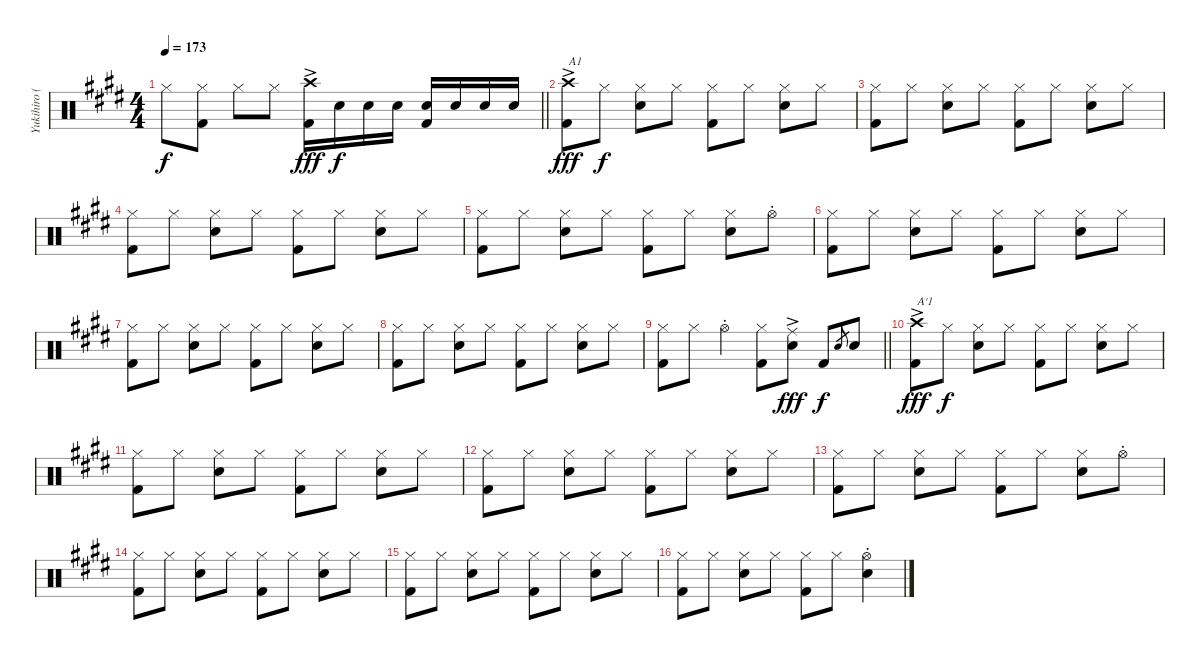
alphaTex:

\track ("Yukihiro (Drums)" "Yukihiro (") {instrument percussion}
\staff {score}
\articulation defaults
\ts (4 4)
\tempo 173
\clef neutral
\barLineRight lightlight
\ks e "Hi-Hat (closed)".8{dy f}
("Hi-Hat (closed)" "Kick (hit) 2").8 "Hi-Hat (closed)".8 "Hi-Hat (closed)".8 ("Crash high (hit)"{ac} "Kick (hit) 2").16{dy fff} "Electric Snare (hit)".16{dy f} "Electric Snare (hit)".16 "Electric Snare (hit)".16 ("Electric Snare (hit)" "Kick (hit) 2").16 "Electric Snare (hit)".16 "Electric Snare (hit)".16 "Electric Snare (hit)".16 |
("Crash high (hit)"{ac} "Kick (hit) 2").8{txt "A1" dy fff} "Hi-Hat (closed)".8{dy f} ("Hi-Hat (closed)" "Electric Snare (hit)").8 "Hi-Hat (closed)".8 ("Hi-Hat (closed)" "Kick (hit) 2").8 "Hi-Hat (closed)".8 ("Hi-Hat (closed)" "Electric Snare (hit)").8 "Hi-Hat (closed)".8 |
("Hi-Hat (closed)" "Kick (hit) 2").8 "Hi-Hat (closed)".8 ("Hi-Hat (closed)" "Electric Snare (hit)").8 "Hi-Hat (closed)".8 ("Hi-Hat (closed)" "Kick (hit) 2").8 "Hi-Hat (closed)".8 ("Hi-Hat (closed)" "Electric Snare (hit)").8 "Hi-Hat (closed)".8 |
("Hi-Hat (closed)" "Kick (hit) 2").8 "Hi-Hat (closed)".8 ("Hi-Hat (closed)" "Electric Snare (hit)").8 "Hi-Hat (closed)".8 ("Hi-Hat (closed)" "Kick (hit) 2").8 "Hi-Hat (closed)".8 ("Hi-Hat (closed)" "Electric Snare (hit)").8 "Hi-Hat (closed)".8 |
("Hi-Hat (closed)" "Kick (hit) 2").8 "Hi-Hat (closed)".8 ("Hi-Hat (closed)" "Electric Snare (hit)").8 "Hi-Hat (closed)".8 ("Hi-Hat (closed)" "Kick (hit) 2").8 "Hi-Hat (closed)".8 ("Hi-Hat (closed)" "Electric Snare (hit)").8 "Hi-Hat (open)"{st}.8 |
("Hi-Hat (closed)" "Kick (hit) 2").8 "Hi-Hat (closed)".8 ("Hi-Hat (closed)" "Electric Snare (hit)").8 "Hi-Hat (closed)".8 ("Hi-Hat (closed)" "Kick (hit) 2").8 "Hi-Hat (closed)".8 ("Hi-Hat (closed)" "Electric Snare (hit)").8 "Hi-Hat (closed)".8 |
("Hi-Hat (closed)" "Kick (hit) 2").8 "Hi-Hat (closed)".8 ("Hi-Hat (closed)" "Electric Snare (hit)").8 "Hi-Hat (closed)".8 ("Hi-Hat (closed)" "Kick (hit) 2").8 "Hi-Hat (closed)".8 ("Hi-Hat (closed)" "Electric Snare (hit)").8 "Hi-Hat (closed)".8 |
("Hi-Hat (closed)" "Kick (hit) 2").8 "Hi-Hat (closed)".8 ("Hi-Hat (closed)" "Electric Snare (hit)").8 "Hi-Hat (closed)".8 ("Hi-Hat (closed)" "Kick (hit) 2").8 "Hi-Hat (closed)".8 ("Hi-Hat (closed)" "Electric Snare (hit)").8 "Hi-Hat (closed)".8 |
\barLineRight lightlight
("Hi-Hat (closed)" "Kick (hit) 2").8 "Hi-Hat (closed)".8 "Hi-Hat (open)"{st}.4 ("Hi-Hat (closed)" "Kick (hit) 2").8 ("Ride (middle)"{ac} "Electric Snare (hit)").8{dy fff} "Kick (hit) 2".8{dy f} "Electric Snare (hit)".8{gr} "Electric Snare (hit)".8 |
("Crash high (hit)"{ac} "Kick (hit) 2").8{txt "A'1" dy fff} "Hi-Hat (closed)".8{dy f} ("Hi-Hat (closed)" "Electric Snare (hit)").8 "Hi-Hat (closed)".8 ("Hi-Hat (closed)" "Kick (hit) 2").8 "Hi-Hat (closed)".8 ("Hi-Hat (closed)" "Electric Snare (hit)").8 "Hi-Hat (closed)".8 |
("Hi-Hat (closed)" "Kick (hit) 2").8 "Hi-Hat (closed)".8 ("Hi-Hat (closed)" "Electric Snare (hit)").8 "Hi-Hat (closed)".8 ("Hi-Hat (closed)" "Kick (hit) 2").8 "Hi-Hat (closed)".8 ("Hi-Hat (closed)" "Electric Snare (hit)").8 "Hi-Hat (closed)".8 |
("Hi-Hat (closed)" "Kick (hit) 2").8 "Hi-Hat (closed)".8 ("Hi-Hat (closed)" "Electric Snare (hit)").8 "Hi-Hat (closed)".8 ("Hi-Hat (closed)" "Kick (hit) 2").8 "Hi-Hat (closed)".8 ("Hi-Hat (closed)" "Electric Snare (hit)").8 "Hi-Hat (closed)".8 |
("Hi-Hat (closed)" "Kick (hit) 2").8 "Hi-Hat (closed)".8 ("Hi-Hat (closed)" "Electric Snare (hit)").8 "Hi-Hat (closed)".8 ("Hi-Hat (closed)" "Kick (hit) 2").8 "Hi-Hat (closed)".8 ("Hi-Hat (closed)" "Electric Snare (hit)").8 "Hi-Hat (open)"{st}.8 |
("Hi-Hat (closed)" "Kick (hit) 2").8 "Hi-Hat (closed)".8 ("Hi-Hat (closed)" "Electric Snare (hit)").8 "Hi-Hat (closed)".8 ("Hi-Hat (closed)" "Kick (hit) 2").8 "Hi-Hat (closed)".8 ("Hi-Hat (closed)" "Electric Snare (hit)").8 "Hi-Hat (closed)".8 |
("Hi-Hat (closed)" "Kick (hit) 2").8 "Hi-Hat (closed)".8 ("Hi-Hat (closed)" "Electric Snare (hit)").8 "Hi-Hat (closed)".8 ("Hi-Hat (closed)" "Kick (hit) 2").8 "Hi-Hat (closed)".8 ("Hi-Hat (closed)" "Electric Snare (hit)").8 "Hi-Hat (closed)".8 |
("Hi-Hat (closed)" "Kick (hit) 2").8 "Hi-Hat (closed)".8 ("Hi-Hat (closed)" "Electric Snare (hit)").8 "Hi-Hat (closed)".8 ("Hi-Hat (closed)" "Kick (hit) 2").8 "Hi-Hat (closed)".8 ("Hi-Hat (open)"{st} "Electric Snare (hit)").4
